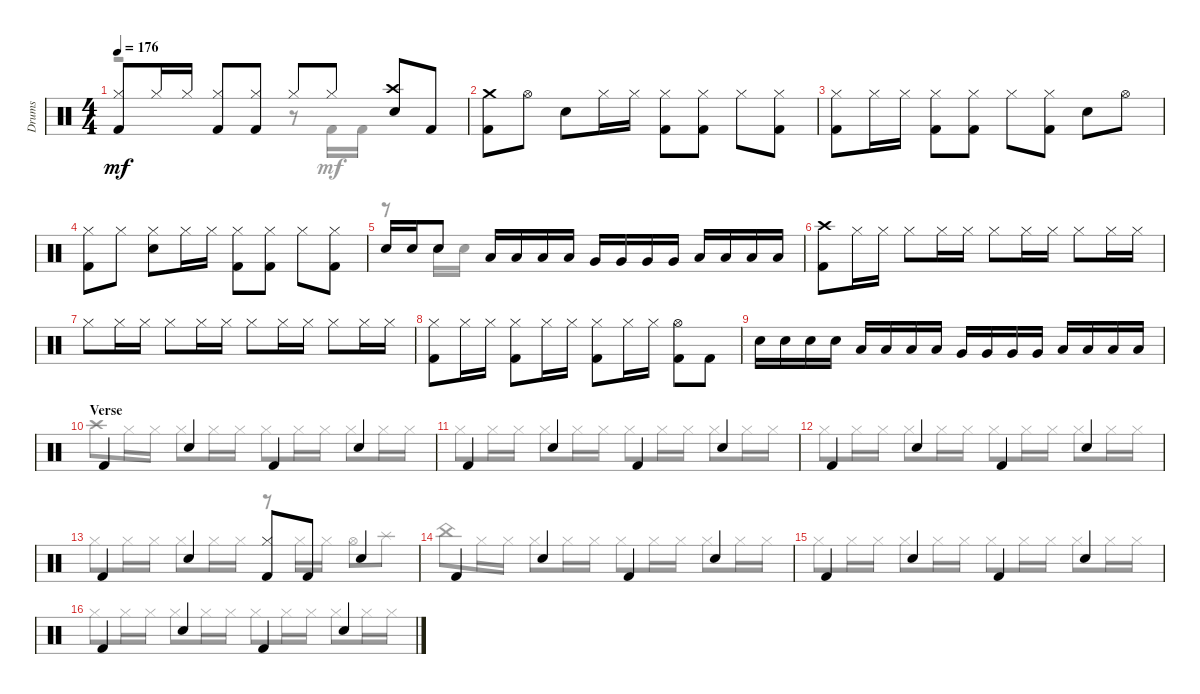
\track ("Drums" "Drums") {instrument percussion}
\staff {score}
\articulation defaults
\voice
\ts (4 4)
\tempo 176
\clef neutral
\ks aminor
("Hi-Hat (closed)" "Kick (hit) 2").8{dy mf} "Hi-Hat (closed)".16 "Hi-Hat (closed)".16 ("Kick (hit) 2" "Hi-Hat (closed)").8 ("Hi-Hat (closed)" "Kick (hit) 2").8 "Hi-Hat (closed)".8 "Hi-Hat (closed)".8 ("Snare (hit) 2" "Crash high (hit)").8 "Kick (hit) 2".8 |
("Crash medium (hit)" "Kick (hit) 2").8 "Hi-Hat (open)".8 "Snare (hit) 2".8 "Hi-Hat (closed)".16 "Hi-Hat (closed)".16 ("Kick (hit) 2" "Hi-Hat (closed)").8 ("Kick (hit) 2" "Hi-Hat (closed)").8 "Hi-Hat (closed)".8 ("Hi-Hat (closed)" "Kick (hit) 2").8 |
("Hi-Hat (closed)" "Kick (hit) 2").8 "Hi-Hat (closed)".16 "Hi-Hat (closed)".16 ("Hi-Hat (closed)" "Kick (hit) 2").8 ("Hi-Hat (closed)" "Kick (hit) 2").8 "Hi-Hat (closed)".8 ("Hi-Hat (closed)" "Kick (hit) 2").8 "Snare (hit) 2".8 "Hi-Hat (open)".8 |
("Kick (hit) 2" "Hi-Hat (closed)").8 "Hi-Hat (closed)".8 ("Hi-Hat (closed)" "Snare (hit) 2").8 "Hi-Hat (closed)".16 "Hi-Hat (closed)".16 ("Kick (hit) 2" "Hi-Hat (closed)").8 ("Kick (hit) 2" "Hi-Hat (closed)").8 "Hi-Hat (closed)".8 ("Hi-Hat (closed)" "Kick (hit) 2").8 |
"Snare (hit) 2".16 "Snare (hit) 2".16 "Snare (hit) 2".8 "Low Tom (hit)".16 "Low Tom (hit)".16 "Low Tom (hit)".16 "Low Tom (hit)".16 "Very Low Tom (hit)".16 "Very Low Tom (hit)".16 "Very Low Tom (hit)".16 "Very Low Tom (hit)".16 "Low Floor Tom (hit)".16 "Low Floor Tom (hit)".16 "Low Floor Tom (hit)".16 "Low Floor Tom (hit)".16 |
("Kick (hit) 2" "Crash high (hit)").8 "Hi-Hat (closed)".16 "Hi-Hat (closed)".16 "Hi-Hat (closed)".8 "Hi-Hat (closed)".16 "Hi-Hat (closed)".16 "Hi-Hat (closed)".8 "Hi-Hat (closed)".16 "Hi-Hat (closed)".16 "Hi-Hat (closed)".8 "Hi-Hat (closed)".16 "Hi-Hat (closed)".16 |
"Hi-Hat (closed)".8 "Hi-Hat (closed)".16 "Hi-Hat (closed)".16 "Hi-Hat (closed)".8 "Hi-Hat (closed)".16 "Hi-Hat (closed)".16 "Hi-Hat (closed)".8 "Hi-Hat (closed)".16 "Hi-Hat (closed)".16 "Hi-Hat (closed)".8 "Hi-Hat (closed)".16 "Hi-Hat (closed)".16 |
("Hi-Hat (closed)" "Kick (hit) 2").8 "Hi-Hat (closed)".16 "Hi-Hat (closed)".16 ("Kick (hit) 2" "Hi-Hat (closed)").8 "Hi-Hat (closed)".16 "Hi-Hat (closed)".16 ("Kick (hit) 2" "Hi-Hat (closed)").8 "Hi-Hat (closed)".16 "Hi-Hat (closed)".16 ("Kick (hit) 2" "Hi-Hat (open)").8 "Kick (hit) 2".8 |
"Snare (hit) 2".16 "Snare (hit) 2".16 "Snare (hit) 2".16 "Snare (hit) 2".16 "Low Tom (hit)".16 "Low Tom (hit)".16 "Low Tom (hit)".16 "Low Tom (hit)".16 "Very Low Tom (hit)".16 "Very Low Tom (hit)".16 "Very Low Tom (hit)".16 "Very Low Tom (hit)".16 "Low Floor Tom (hit)".16 "Low Floor Tom (hit)".16 "Low Floor Tom (hit)".16 "Low Floor Tom (hit)".16 |
\section ("" "Verse")
"Kick (hit) 2".4 "Snare (hit) 2".4 "Kick (hit) 2".4 "Snare (hit) 2".4 |
"Kick (hit) 2".4 "Snare (hit) 2".4 "Kick (hit) 2".4 "Snare (hit) 2".4 |
"Kick (hit) 2".4 "Snare (hit) 2".4 "Kick (hit) 2".4 "Snare (hit) 2".4 |
"Kick (hit) 2".4 "Snare (hit) 2".4 ("Hi-Hat (closed)" "Kick (hit) 2").8 "Kick (hit) 2".8 "Snare (hit) 2".4 |
"Kick (hit) 2".4 "Snare (hit) 2".4 "Kick (hit) 2".4 "Snare (hit) 2".4 |
"Kick (hit) 2".4 "Snare (hit) 2".4 "Kick (hit) 2".4 "Snare (hit) 2".4 |
"Kick (hit) 2".4 "Snare (hit) 2".4 "Kick (hit) 2".4 "Snare (hit) 2".4
\voice
\clef neutral
\ottava regular
\simile none
\ks aminor
r.2{dy mf} r.8 "Kick (hit) 2".16 "Kick (hit) 2".16 |
|
|
|
r.8 "Snare (hit) 2".16 "Snare (hit) 2".16 |
|
|
|
|
"Crash high (hit)".8 "Hi-Hat (closed)".16 "Hi-Hat (closed)".16 "Hi-Hat (closed)".8 "Hi-Hat (closed)".16 "Hi-Hat (closed)".16 "Hi-Hat (closed)".8 "Hi-Hat (closed)".16 "Hi-Hat (closed)".16 "Hi-Hat (closed)".8 "Hi-Hat (closed)".16 "Hi-Hat (closed)".16 |
"Hi-Hat (closed)".8 "Hi-Hat (closed)".16 "Hi-Hat (closed)".16 "Hi-Hat (closed)".8 "Hi-Hat (closed)".16 "Hi-Hat (closed)".16 "Hi-Hat (closed)".8 "Hi-Hat (closed)".16 "Hi-Hat (closed)".16 "Hi-Hat (closed)".8 "Hi-Hat (closed)".16 "Hi-Hat (closed)".16 |
"Hi-Hat (closed)".8 "Hi-Hat (closed)".16 "Hi-Hat (closed)".16 "Hi-Hat (closed)".8 "Hi-Hat (closed)".16 "Hi-Hat (closed)".16 "Hi-Hat (closed)".8 "Hi-Hat (closed)".16 "Hi-Hat (closed)".16 "Hi-Hat (closed)".8 "Hi-Hat (closed)".16 "Hi-Hat (closed)".16 |
"Hi-Hat (closed)".8 "Hi-Hat (closed)".16 "Hi-Hat (closed)".16 "Hi-Hat (closed)".8 "Hi-Hat (closed)".16 "Hi-Hat (closed)".16 r.8 "Hi-Hat (closed)".16 "Hi-Hat (closed)".16 "Hi-Hat (open)".8 "Splash (hit)".8 |
"China (hit)".8 "Hi-Hat (closed)".16 "Hi-Hat (closed)".16 "Hi-Hat (closed)".8 "Hi-Hat (closed)".16 "Hi-Hat (closed)".16 "Hi-Hat (closed)".8 "Hi-Hat (closed)".16 "Hi-Hat (closed)".16 "Hi-Hat (closed)".8 "Hi-Hat (closed)".16 "Hi-Hat (closed)".16 |
"Hi-Hat (closed)".8 "Hi-Hat (closed)".16 "Hi-Hat (closed)".16 "Hi-Hat (closed)".8 "Hi-Hat (closed)".16 "Hi-Hat (closed)".16 "Hi-Hat (closed)".8 "Hi-Hat (closed)".16 "Hi-Hat (closed)".16 "Hi-Hat (closed)".8 "Hi-Hat (closed)".16 "Hi-Hat (closed)".16 |
"Hi-Hat (closed)".8 "Hi-Hat (closed)".16 "Hi-Hat (closed)".16 "Hi-Hat (closed)".8 "Hi-Hat (closed)".16 "Hi-Hat (closed)".16 "Hi-Hat (closed)".8 "Hi-Hat (closed)".16 "Hi-Hat (closed)".16 "Hi-Hat (closed)".8 "Hi-Hat (closed)".16 "Hi-Hat (closed)".16
